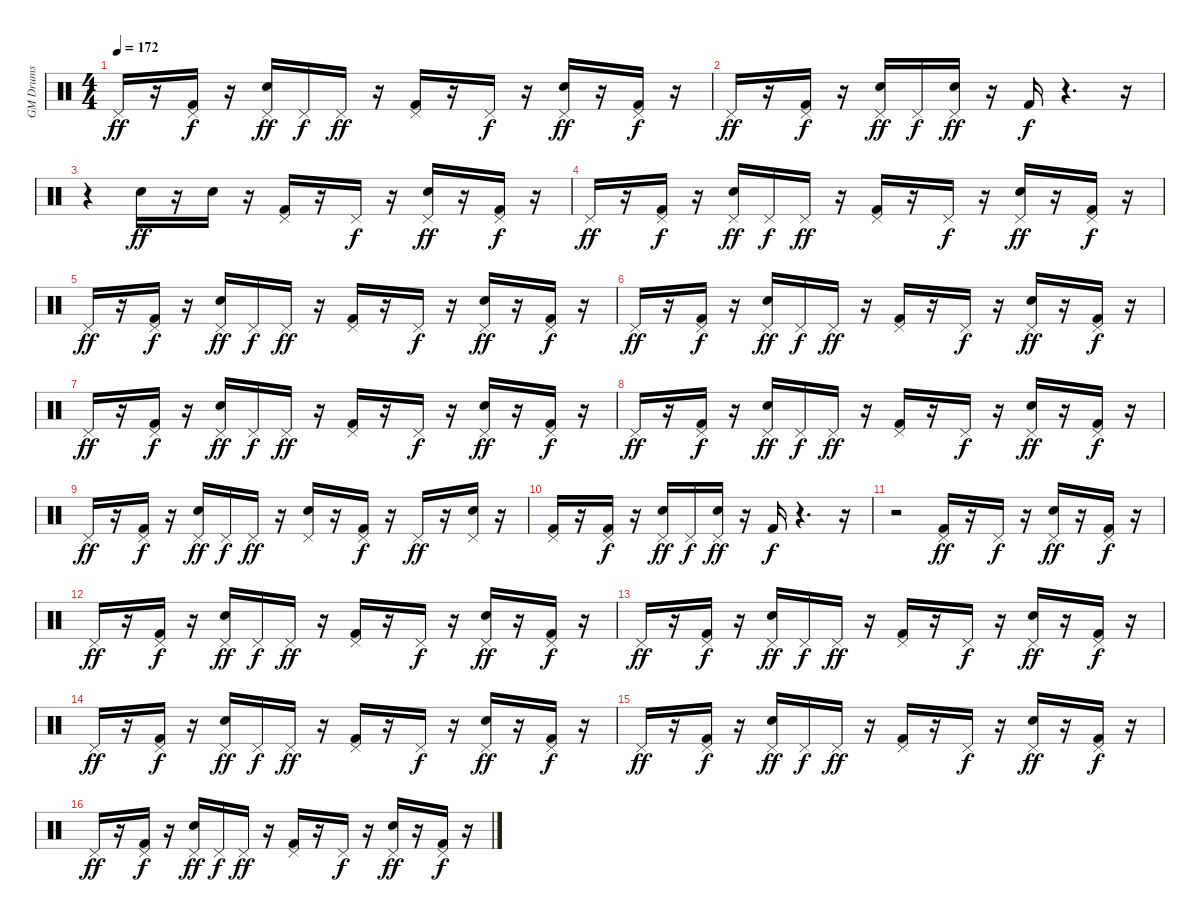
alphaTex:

\track ("GM Drums" "GM Drums") {instrument percussion}
\staff {score}
\articulation defaults
\ts (4 4)
\tempo 172
\clef neutral
\ks c "Pedal Hi-Hat (hit)".16{dy ff}
r.16 ("Kick (hit) 2" "Pedal Hi-Hat (hit)").16{dy f} r.16 ("Snare (hit) 2" "Pedal Hi-Hat (hit)").16{dy ff} "Pedal Hi-Hat (hit)".16{dy f} "Pedal Hi-Hat (hit)".16{dy ff} r.16 ("Kick (hit) 2" "Pedal Hi-Hat (hit)").16 r.16 "Pedal Hi-Hat (hit)".16{dy f} r.16 ("Snare (hit) 2" "Pedal Hi-Hat (hit)").16{dy ff} r.16 ("Kick (hit) 2" "Pedal Hi-Hat (hit)").16{dy f} r.16 |
"Pedal Hi-Hat (hit)".16{dy ff} r.16 ("Kick (hit) 2" "Pedal Hi-Hat (hit)").16{dy f} r.16 ("Snare (hit) 2" "Pedal Hi-Hat (hit)").16{dy ff} "Pedal Hi-Hat (hit)".16{dy f} ("Snare (hit) 2" "Pedal Hi-Hat (hit)").16{dy ff} r.16 "Kick (hit) 2".16{dy f} r.4{d} r.16 |
r.4 "Snare (hit) 2".16{dy ff} r.16 "Snare (hit) 2".16 r.16 ("Kick (hit) 2" "Pedal Hi-Hat (hit)").16 r.16 "Pedal Hi-Hat (hit)".16{dy f} r.16 ("Snare (hit) 2" "Pedal Hi-Hat (hit)").16{dy ff} r.16 ("Kick (hit) 2" "Pedal Hi-Hat (hit)").16{dy f} r.16 |
"Pedal Hi-Hat (hit)".16{dy ff} r.16 ("Kick (hit) 2" "Pedal Hi-Hat (hit)").16{dy f} r.16 ("Snare (hit) 2" "Pedal Hi-Hat (hit)").16{dy ff} "Pedal Hi-Hat (hit)".16{dy f} "Pedal Hi-Hat (hit)".16{dy ff} r.16 ("Kick (hit) 2" "Pedal Hi-Hat (hit)").16 r.16 "Pedal Hi-Hat (hit)".16{dy f} r.16 ("Snare (hit) 2" "Pedal Hi-Hat (hit)").16{dy ff} r.16 ("Kick (hit) 2" "Pedal Hi-Hat (hit)").16{dy f} r.16 |
"Pedal Hi-Hat (hit)".16{dy ff} r.16 ("Kick (hit) 2" "Pedal Hi-Hat (hit)").16{dy f} r.16 ("Snare (hit) 2" "Pedal Hi-Hat (hit)").16{dy ff} "Pedal Hi-Hat (hit)".16{dy f} "Pedal Hi-Hat (hit)".16{dy ff} r.16 ("Kick (hit) 2" "Pedal Hi-Hat (hit)").16 r.16 "Pedal Hi-Hat (hit)".16{dy f} r.16 ("Snare (hit) 2" "Pedal Hi-Hat (hit)").16{dy ff} r.16 ("Kick (hit) 2" "Pedal Hi-Hat (hit)").16{dy f} r.16 |
"Pedal Hi-Hat (hit)".16{dy ff} r.16 ("Kick (hit) 2" "Pedal Hi-Hat (hit)").16{dy f} r.16 ("Snare (hit) 2" "Pedal Hi-Hat (hit)").16{dy ff} "Pedal Hi-Hat (hit)".16{dy f} "Pedal Hi-Hat (hit)".16{dy ff} r.16 ("Kick (hit) 2" "Pedal Hi-Hat (hit)").16 r.16 "Pedal Hi-Hat (hit)".16{dy f} r.16 ("Snare (hit) 2" "Pedal Hi-Hat (hit)").16{dy ff} r.16 ("Kick (hit) 2" "Pedal Hi-Hat (hit)").16{dy f} r.16 |
"Pedal Hi-Hat (hit)".16{dy ff} r.16 ("Kick (hit) 2" "Pedal Hi-Hat (hit)").16{dy f} r.16 ("Snare (hit) 2" "Pedal Hi-Hat (hit)").16{dy ff} "Pedal Hi-Hat (hit)".16{dy f} "Pedal Hi-Hat (hit)".16{dy ff} r.16 ("Kick (hit) 2" "Pedal Hi-Hat (hit)").16 r.16 "Pedal Hi-Hat (hit)".16{dy f} r.16 ("Snare (hit) 2" "Pedal Hi-Hat (hit)").16{dy ff} r.16 ("Kick (hit) 2" "Pedal Hi-Hat (hit)").16{dy f} r.16 |
"Pedal Hi-Hat (hit)".16{dy ff} r.16 ("Kick (hit) 2" "Pedal Hi-Hat (hit)").16{dy f} r.16 ("Snare (hit) 2" "Pedal Hi-Hat (hit)").16{dy ff} "Pedal Hi-Hat (hit)".16{dy f} "Pedal Hi-Hat (hit)".16{dy ff} r.16 ("Kick (hit) 2" "Pedal Hi-Hat (hit)").16 r.16 "Pedal Hi-Hat (hit)".16{dy f} r.16 ("Snare (hit) 2" "Pedal Hi-Hat (hit)").16{dy ff} r.16 ("Kick (hit) 2" "Pedal Hi-Hat (hit)").16{dy f} r.16 |
"Pedal Hi-Hat (hit)".16{dy ff} r.16 ("Kick (hit) 2" "Pedal Hi-Hat (hit)").16{dy f} r.16 ("Snare (hit) 2" "Pedal Hi-Hat (hit)").16{dy ff} "Pedal Hi-Hat (hit)".16{dy f} "Pedal Hi-Hat (hit)".16{dy ff} r.16 ("Snare (hit) 2" "Pedal Hi-Hat (hit)").16 r.16 ("Kick (hit) 2" "Pedal Hi-Hat (hit)").16{dy f} r.16 "Pedal Hi-Hat (hit)".16{dy ff} r.16 ("Snare (hit) 2" "Pedal Hi-Hat (hit)").16 r.16 |
("Kick (hit) 2" "Pedal Hi-Hat (hit)").16 r.16 ("Kick (hit) 2" "Pedal Hi-Hat (hit)").16{dy f} r.16 ("Snare (hit) 2" "Pedal Hi-Hat (hit)").16{dy ff} "Pedal Hi-Hat (hit)".16{dy f} ("Snare (hit) 2" "Pedal Hi-Hat (hit)").16{dy ff} r.16 "Kick (hit) 2".16{dy f} r.4{d} r.16 |
r.2 ("Kick (hit) 2" "Pedal Hi-Hat (hit)").16{dy ff} r.16 "Pedal Hi-Hat (hit)".16{dy f} r.16 ("Snare (hit) 2" "Pedal Hi-Hat (hit)").16{dy ff} r.16 ("Kick (hit) 2" "Pedal Hi-Hat (hit)").16{dy f} r.16 |
"Pedal Hi-Hat (hit)".16{dy ff} r.16 ("Kick (hit) 2" "Pedal Hi-Hat (hit)").16{dy f} r.16 ("Snare (hit) 2" "Pedal Hi-Hat (hit)").16{dy ff} "Pedal Hi-Hat (hit)".16{dy f} "Pedal Hi-Hat (hit)".16{dy ff} r.16 ("Kick (hit) 2" "Pedal Hi-Hat (hit)").16 r.16 "Pedal Hi-Hat (hit)".16{dy f} r.16 ("Snare (hit) 2" "Pedal Hi-Hat (hit)").16{dy ff} r.16 ("Kick (hit) 2" "Pedal Hi-Hat (hit)").16{dy f} r.16 |
"Pedal Hi-Hat (hit)".16{dy ff} r.16 ("Kick (hit) 2" "Pedal Hi-Hat (hit)").16{dy f} r.16 ("Snare (hit) 2" "Pedal Hi-Hat (hit)").16{dy ff} "Pedal Hi-Hat (hit)".16{dy f} "Pedal Hi-Hat (hit)".16{dy ff} r.16 ("Kick (hit) 2" "Pedal Hi-Hat (hit)").16 r.16 "Pedal Hi-Hat (hit)".16{dy f} r.16 ("Snare (hit) 2" "Pedal Hi-Hat (hit)").16{dy ff} r.16 ("Kick (hit) 2" "Pedal Hi-Hat (hit)").16{dy f} r.16 |
"Pedal Hi-Hat (hit)".16{dy ff} r.16 ("Kick (hit) 2" "Pedal Hi-Hat (hit)").16{dy f} r.16 ("Snare (hit) 2" "Pedal Hi-Hat (hit)").16{dy ff} "Pedal Hi-Hat (hit)".16{dy f} "Pedal Hi-Hat (hit)".16{dy ff} r.16 ("Kick (hit) 2" "Pedal Hi-Hat (hit)").16 r.16 "Pedal Hi-Hat (hit)".16{dy f} r.16 ("Snare (hit) 2" "Pedal Hi-Hat (hit)").16{dy ff} r.16 ("Kick (hit) 2" "Pedal Hi-Hat (hit)").16{dy f} r.16 |
"Pedal Hi-Hat (hit)".16{dy ff} r.16 ("Kick (hit) 2" "Pedal Hi-Hat (hit)").16{dy f} r.16 ("Snare (hit) 2" "Pedal Hi-Hat (hit)").16{dy ff} "Pedal Hi-Hat (hit)".16{dy f} "Pedal Hi-Hat (hit)".16{dy ff} r.16 ("Kick (hit) 2" "Pedal Hi-Hat (hit)").16 r.16 "Pedal Hi-Hat (hit)".16{dy f} r.16 ("Snare (hit) 2" "Pedal Hi-Hat (hit)").16{dy ff} r.16 ("Kick (hit) 2" "Pedal Hi-Hat (hit)").16{dy f} r.16 |
"Pedal Hi-Hat (hit)".16{dy ff} r.16 ("Kick (hit) 2" "Pedal Hi-Hat (hit)").16{dy f} r.16 ("Snare (hit) 2" "Pedal Hi-Hat (hit)").16{dy ff} "Pedal Hi-Hat (hit)".16{dy f} "Pedal Hi-Hat (hit)".16{dy ff} r.16 ("Kick (hit) 2" "Pedal Hi-Hat (hit)").16 r.16 "Pedal Hi-Hat (hit)".16{dy f} r.16 ("Snare (hit) 2" "Pedal Hi-Hat (hit)").16{dy ff} r.16 ("Kick (hit) 2" "Pedal Hi-Hat (hit)").16{dy f} r.16
